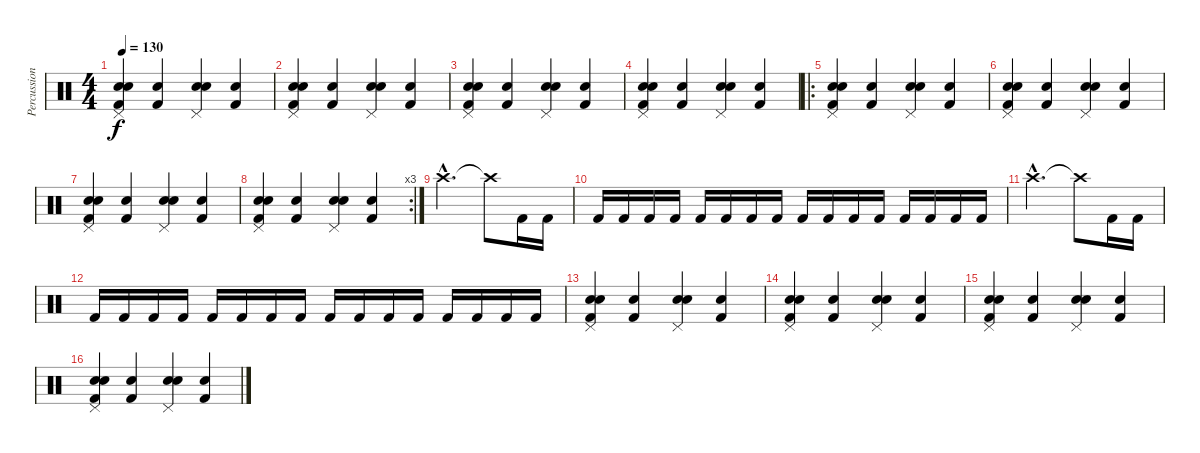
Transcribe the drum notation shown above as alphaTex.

\track ("Percussion" "Percussion") {instrument percussion}
\staff {score}
\articulation defaults
\ts (4 4)
\tempo 130
\clef neutral
\ks c
("Pedal Hi-Hat (hit)" "Snare (hit) 2" "Kick (hit) 2" "Snare (hit) 2").4{dy f volume 10} ("Kick (hit) 2" "Snare (hit) 2").4 ("Pedal Hi-Hat (hit)" "Snare (hit) 2" "Snare (hit) 2").4 ("Snare (hit) 2" "Kick (hit) 2").4 |
("Pedal Hi-Hat (hit)" "Snare (hit) 2" "Kick (hit) 2" "Snare (hit) 2").4{volume 10} ("Kick (hit) 2" "Snare (hit) 2").4 ("Pedal Hi-Hat (hit)" "Snare (hit) 2" "Snare (hit) 2").4 ("Snare (hit) 2" "Kick (hit) 2").4 |
("Pedal Hi-Hat (hit)" "Snare (hit) 2" "Kick (hit) 2" "Snare (hit) 2").4{volume 10} ("Kick (hit) 2" "Snare (hit) 2").4 ("Pedal Hi-Hat (hit)" "Snare (hit) 2" "Snare (hit) 2").4 ("Snare (hit) 2" "Kick (hit) 2").4 |
("Pedal Hi-Hat (hit)" "Snare (hit) 2" "Kick (hit) 2" "Snare (hit) 2").4{volume 10} ("Kick (hit) 2" "Snare (hit) 2").4 ("Pedal Hi-Hat (hit)" "Snare (hit) 2" "Snare (hit) 2").4 ("Snare (hit) 2" "Kick (hit) 2").4 |
\ro
("Pedal Hi-Hat (hit)" "Snare (hit) 2" "Kick (hit) 2" "Snare (hit) 2").4{volume 10} ("Kick (hit) 2" "Snare (hit) 2").4 ("Pedal Hi-Hat (hit)" "Snare (hit) 2" "Snare (hit) 2").4 ("Snare (hit) 2" "Kick (hit) 2").4 |
("Pedal Hi-Hat (hit)" "Snare (hit) 2" "Kick (hit) 2" "Snare (hit) 2").4{volume 10} ("Kick (hit) 2" "Snare (hit) 2").4 ("Pedal Hi-Hat (hit)" "Snare (hit) 2" "Snare (hit) 2").4 ("Snare (hit) 2" "Kick (hit) 2").4 |
("Pedal Hi-Hat (hit)" "Snare (hit) 2" "Kick (hit) 2" "Snare (hit) 2").4{volume 10} ("Kick (hit) 2" "Snare (hit) 2").4 ("Pedal Hi-Hat (hit)" "Snare (hit) 2" "Snare (hit) 2").4 ("Snare (hit) 2" "Kick (hit) 2").4 |
\rc 3
("Pedal Hi-Hat (hit)" "Snare (hit) 2" "Kick (hit) 2" "Snare (hit) 2").4{volume 10} ("Kick (hit) 2" "Snare (hit) 2").4 ("Pedal Hi-Hat (hit)" "Snare (hit) 2" "Snare (hit) 2").4 ("Snare (hit) 2" "Kick (hit) 2").4 |
"Crash high (hit)"{hac}.2{d} "Crash high (hit)"{t}.8 "Kick (hit) 2".16 "Kick (hit) 2".16 |
"Kick (hit) 2".16 "Kick (hit) 2".16 "Kick (hit) 2".16 "Kick (hit) 2".16 "Kick (hit) 2".16 "Kick (hit) 2".16 "Kick (hit) 2".16 "Kick (hit) 2".16 "Kick (hit) 2".16 "Kick (hit) 2".16 "Kick (hit) 2".16 "Kick (hit) 2".16 "Kick (hit) 2".16 "Kick (hit) 2".16 "Kick (hit) 2".16 "Kick (hit) 2".16 |
"Crash high (hit)"{hac}.2{d} "Crash high (hit)"{t}.8 "Kick (hit) 2".16 "Kick (hit) 2".16 |
"Kick (hit) 2".16 "Kick (hit) 2".16 "Kick (hit) 2".16 "Kick (hit) 2".16 "Kick (hit) 2".16 "Kick (hit) 2".16 "Kick (hit) 2".16 "Kick (hit) 2".16 "Kick (hit) 2".16 "Kick (hit) 2".16 "Kick (hit) 2".16 "Kick (hit) 2".16 "Kick (hit) 2".16 "Kick (hit) 2".16 "Kick (hit) 2".16 "Kick (hit) 2".16 |
("Pedal Hi-Hat (hit)" "Snare (hit) 2" "Kick (hit) 2" "Snare (hit) 2").4{volume 10} ("Kick (hit) 2" "Snare (hit) 2").4 ("Pedal Hi-Hat (hit)" "Snare (hit) 2" "Snare (hit) 2").4 ("Snare (hit) 2" "Kick (hit) 2").4 |
("Pedal Hi-Hat (hit)" "Snare (hit) 2" "Kick (hit) 2" "Snare (hit) 2").4{volume 10} ("Kick (hit) 2" "Snare (hit) 2").4 ("Pedal Hi-Hat (hit)" "Snare (hit) 2" "Snare (hit) 2").4 ("Snare (hit) 2" "Kick (hit) 2").4 |
("Pedal Hi-Hat (hit)" "Snare (hit) 2" "Kick (hit) 2" "Snare (hit) 2").4{volume 10} ("Kick (hit) 2" "Snare (hit) 2").4 ("Pedal Hi-Hat (hit)" "Snare (hit) 2" "Snare (hit) 2").4 ("Snare (hit) 2" "Kick (hit) 2").4 |
("Pedal Hi-Hat (hit)" "Snare (hit) 2" "Kick (hit) 2" "Snare (hit) 2").4{volume 10} ("Kick (hit) 2" "Snare (hit) 2").4 ("Pedal Hi-Hat (hit)" "Snare (hit) 2" "Snare (hit) 2").4 ("Snare (hit) 2" "Kick (hit) 2").4
